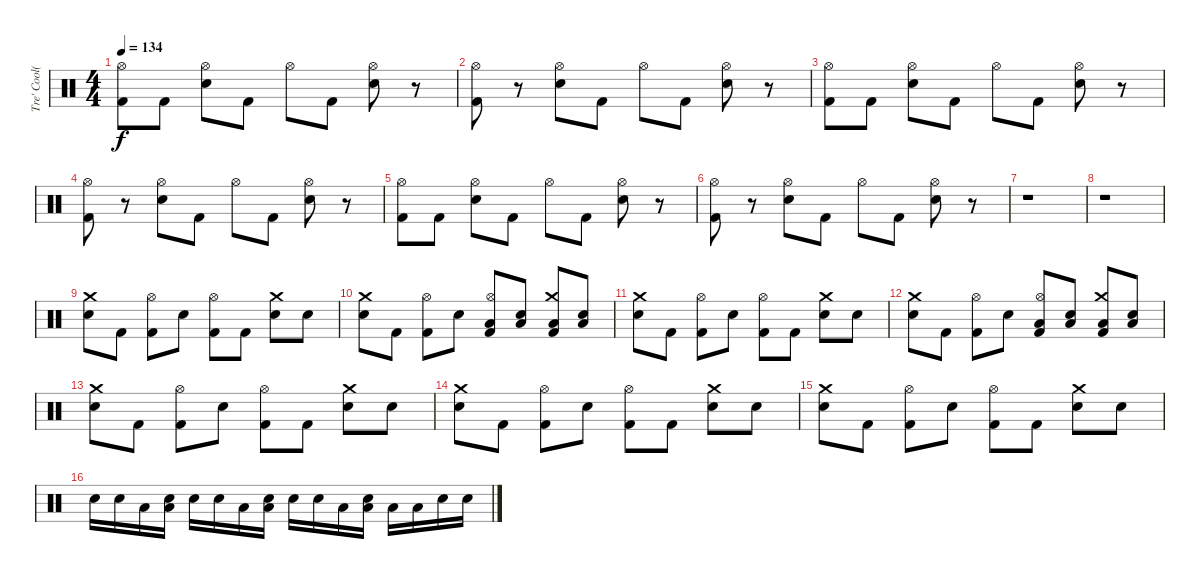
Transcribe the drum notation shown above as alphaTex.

\track ("Tre' Cool(Drums)" "Tre' Cool(") {instrument percussion}
\staff {score}
\articulation defaults
\ts (4 4)
\tempo 134
\clef neutral
\ks c
("Kick (hit) 2" "Hi-Hat (open)").8{dy f} "Kick (hit) 2".8 ("Electric Snare (hit)" "Hi-Hat (open)").8 "Kick (hit) 2".8 "Hi-Hat (open)".8 "Kick (hit) 2".8 ("Electric Snare (hit)" "Hi-Hat (open)").8 r.8 |
("Kick (hit) 2" "Hi-Hat (open)").8 r.8 ("Electric Snare (hit)" "Hi-Hat (open)").8 "Kick (hit) 2".8 "Hi-Hat (open)".8 "Kick (hit) 2".8 ("Electric Snare (hit)" "Hi-Hat (open)").8 r.8 |
("Kick (hit) 2" "Hi-Hat (open)").8 "Kick (hit) 2".8 ("Electric Snare (hit)" "Hi-Hat (open)").8 "Kick (hit) 2".8 "Hi-Hat (open)".8 "Kick (hit) 2".8 ("Electric Snare (hit)" "Hi-Hat (open)").8 r.8 |
("Kick (hit) 2" "Hi-Hat (open)").8 r.8 ("Electric Snare (hit)" "Hi-Hat (open)").8 "Kick (hit) 2".8 "Hi-Hat (open)".8 "Kick (hit) 2".8 ("Electric Snare (hit)" "Hi-Hat (open)").8 r.8 |
("Kick (hit) 2" "Hi-Hat (open)").8 "Kick (hit) 2".8 ("Electric Snare (hit)" "Hi-Hat (open)").8 "Kick (hit) 2".8 "Hi-Hat (open)".8 "Kick (hit) 2".8 ("Electric Snare (hit)" "Hi-Hat (open)").8 r.8 |
("Kick (hit) 2" "Hi-Hat (open)").8 r.8 ("Electric Snare (hit)" "Hi-Hat (open)").8 "Kick (hit) 2".8 "Hi-Hat (open)".8 "Kick (hit) 2".8 ("Electric Snare (hit)" "Hi-Hat (open)").8 r.8 |
r.1 |
r.1 |
("Electric Snare (hit)" "Crash medium (hit)").8 "Kick (hit) 2".8 ("Kick (hit) 2" "Hi-Hat (open)").8 "Electric Snare (hit)".8 ("Kick (hit) 2" "Hi-Hat (open)").8 "Kick (hit) 2".8 ("Electric Snare (hit)" "Crash medium (hit)").8 "Electric Snare (hit)".8 |
("Electric Snare (hit)" "Crash medium (hit)").8 "Kick (hit) 2".8 ("Kick (hit) 2" "Hi-Hat (open)").8 "Electric Snare (hit)".8 ("Kick (hit) 2" "Low Floor Tom (hit)" "Hi-Hat (open)").8 ("Low Floor Tom (hit)" "Electric Snare (hit)").8 ("Kick (hit) 2" "Low Floor Tom (hit)" "Crash medium (hit)").8 ("Low Floor Tom (hit)" "Electric Snare (hit)").8 |
("Electric Snare (hit)" "Crash medium (hit)").8 "Kick (hit) 2".8 ("Kick (hit) 2" "Hi-Hat (open)").8 "Electric Snare (hit)".8 ("Kick (hit) 2" "Hi-Hat (open)").8 "Kick (hit) 2".8 ("Electric Snare (hit)" "Crash medium (hit)").8 "Electric Snare (hit)".8 |
("Electric Snare (hit)" "Crash medium (hit)").8 "Kick (hit) 2".8 ("Kick (hit) 2" "Hi-Hat (open)").8 "Electric Snare (hit)".8 ("Kick (hit) 2" "Low Floor Tom (hit)" "Hi-Hat (open)").8 ("Low Floor Tom (hit)" "Electric Snare (hit)").8 ("Kick (hit) 2" "Low Floor Tom (hit)" "Crash medium (hit)").8 ("Low Floor Tom (hit)" "Electric Snare (hit)").8 |
("Electric Snare (hit)" "Crash medium (hit)").8 "Kick (hit) 2".8 ("Kick (hit) 2" "Hi-Hat (open)").8 "Electric Snare (hit)".8 ("Kick (hit) 2" "Hi-Hat (open)").8 "Kick (hit) 2".8 ("Electric Snare (hit)" "Crash medium (hit)").8 "Electric Snare (hit)".8 |
("Electric Snare (hit)" "Crash medium (hit)").8 "Kick (hit) 2".8 ("Kick (hit) 2" "Hi-Hat (open)").8 "Electric Snare (hit)".8 ("Kick (hit) 2" "Hi-Hat (open)").8 "Kick (hit) 2".8 ("Electric Snare (hit)" "Crash medium (hit)").8 "Electric Snare (hit)".8 |
("Electric Snare (hit)" "Crash medium (hit)").8 "Kick (hit) 2".8 ("Kick (hit) 2" "Hi-Hat (open)").8 "Electric Snare (hit)".8 ("Kick (hit) 2" "Hi-Hat (open)").8 "Kick (hit) 2".8 ("Electric Snare (hit)" "Crash medium (hit)").8 "Electric Snare (hit)".8 |
"Electric Snare (hit)".16 "Electric Snare (hit)".16 "Low Floor Tom (hit)".16 ("Low Floor Tom (hit)" "Electric Snare (hit)").16 "Electric Snare (hit)".16 "Electric Snare (hit)".16 "Low Floor Tom (hit)".16 ("Low Floor Tom (hit)" "Electric Snare (hit)").16 "Electric Snare (hit)".16 "Electric Snare (hit)".16 "Low Floor Tom (hit)".16 ("Low Floor Tom (hit)" "Electric Snare (hit)").16 "Low Floor Tom (hit)".16 "Low Floor Tom (hit)".16 "Electric Snare (hit)".16 "Electric Snare (hit)".16
